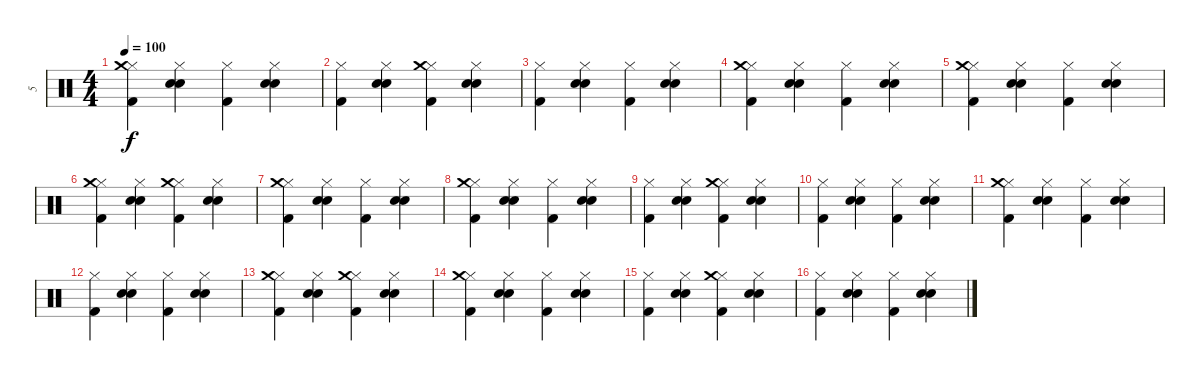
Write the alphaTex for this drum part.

\track ("5" "5") {instrument percussion}
\staff {score}
\articulation defaults
\ts (4 4)
\tempo 100
\clef neutral
\ks c
("Kick (hit) 2" "Hi-Hat (closed)" "Crash medium (hit)").4{dy f} ("Electric Snare (hit)" "Hand Clap (hit)" "Hi-Hat (closed)").4 ("Kick (hit) 2" "Hi-Hat (closed)").4 ("Electric Snare (hit)" "Hand Clap (hit)" "Hi-Hat (closed)").4 |
("Kick (hit) 2" "Hi-Hat (closed)").4 ("Electric Snare (hit)" "Hand Clap (hit)" "Hi-Hat (closed)").4 ("Kick (hit) 2" "Hi-Hat (closed)" "Crash medium (hit)").4 ("Electric Snare (hit)" "Hand Clap (hit)" "Hi-Hat (closed)").4 |
("Kick (hit) 2" "Hi-Hat (closed)").4 ("Electric Snare (hit)" "Hand Clap (hit)" "Hi-Hat (closed)").4 ("Kick (hit) 2" "Hi-Hat (closed)").4 ("Electric Snare (hit)" "Hand Clap (hit)" "Hi-Hat (closed)").4 |
("Kick (hit) 2" "Hi-Hat (closed)" "Crash medium (hit)").4 ("Electric Snare (hit)" "Hand Clap (hit)" "Hi-Hat (closed)").4 ("Kick (hit) 2" "Hi-Hat (closed)").4 ("Electric Snare (hit)" "Hand Clap (hit)" "Hi-Hat (closed)").4 |
("Kick (hit) 2" "Hi-Hat (closed)" "Crash medium (hit)").4 ("Electric Snare (hit)" "Hand Clap (hit)" "Hi-Hat (closed)").4 ("Kick (hit) 2" "Hi-Hat (closed)").4 ("Electric Snare (hit)" "Hand Clap (hit)" "Hi-Hat (closed)").4 |
("Kick (hit) 2" "Hi-Hat (closed)" "Crash medium (hit)").4 ("Electric Snare (hit)" "Hand Clap (hit)" "Hi-Hat (closed)").4 ("Kick (hit) 2" "Hi-Hat (closed)" "Crash medium (hit)").4 ("Electric Snare (hit)" "Hand Clap (hit)" "Hi-Hat (closed)").4 |
("Kick (hit) 2" "Hi-Hat (closed)" "Crash medium (hit)").4 ("Electric Snare (hit)" "Hand Clap (hit)" "Hi-Hat (closed)").4 ("Kick (hit) 2" "Hi-Hat (closed)").4 ("Electric Snare (hit)" "Hand Clap (hit)" "Hi-Hat (closed)").4 |
("Kick (hit) 2" "Hi-Hat (closed)" "Crash medium (hit)").4 ("Electric Snare (hit)" "Hand Clap (hit)" "Hi-Hat (closed)").4 ("Kick (hit) 2" "Hi-Hat (closed)").4 ("Electric Snare (hit)" "Hand Clap (hit)" "Hi-Hat (closed)").4 |
("Kick (hit) 2" "Hi-Hat (closed)").4 ("Electric Snare (hit)" "Hand Clap (hit)" "Hi-Hat (closed)").4 ("Kick (hit) 2" "Hi-Hat (closed)" "Crash medium (hit)").4 ("Electric Snare (hit)" "Hand Clap (hit)" "Hi-Hat (closed)").4 |
("Kick (hit) 2" "Hi-Hat (closed)").4 ("Electric Snare (hit)" "Hand Clap (hit)" "Hi-Hat (closed)").4 ("Kick (hit) 2" "Hi-Hat (closed)").4 ("Electric Snare (hit)" "Hand Clap (hit)" "Hi-Hat (closed)").4 |
("Kick (hit) 2" "Hi-Hat (closed)" "Crash medium (hit)").4 ("Electric Snare (hit)" "Snare (hit)" "Hi-Hat (closed)").4 ("Kick (hit) 2" "Hi-Hat (closed)").4 ("Electric Snare (hit)" "Hand Clap (hit)" "Hi-Hat (closed)").4 |
("Kick (hit) 2" "Hi-Hat (closed)").4 ("Electric Snare (hit)" "Hand Clap (hit)" "Hi-Hat (closed)").4 ("Kick (hit) 2" "Hi-Hat (closed)").4 ("Electric Snare (hit)" "Hand Clap (hit)" "Hi-Hat (closed)").4 |
("Kick (hit) 2" "Hi-Hat (closed)" "Crash medium (hit)").4 ("Electric Snare (hit)" "Hand Clap (hit)" "Hi-Hat (closed)").4 ("Kick (hit) 2" "Hi-Hat (closed)" "Crash medium (hit)").4 ("Electric Snare (hit)" "Hand Clap (hit)" "Hi-Hat (closed)").4 |
("Kick (hit) 2" "Hi-Hat (closed)" "Crash medium (hit)").4 ("Electric Snare (hit)" "Hand Clap (hit)" "Hi-Hat (closed)").4 ("Kick (hit) 2" "Hi-Hat (closed)").4 ("Electric Snare (hit)" "Hand Clap (hit)" "Hi-Hat (closed)").4 |
("Kick (hit) 2" "Hi-Hat (closed)").4 ("Electric Snare (hit)" "Hand Clap (hit)" "Hi-Hat (closed)").4 ("Kick (hit) 2" "Hi-Hat (closed)" "Crash medium (hit)").4 ("Electric Snare (hit)" "Hand Clap (hit)" "Hi-Hat (closed)").4 |
("Kick (hit) 2" "Hi-Hat (closed)").4 ("Electric Snare (hit)" "Hand Clap (hit)" "Hi-Hat (closed)").4 ("Kick (hit) 2" "Hi-Hat (closed)").4 ("Electric Snare (hit)" "Hand Clap (hit)" "Hi-Hat (closed)").4
